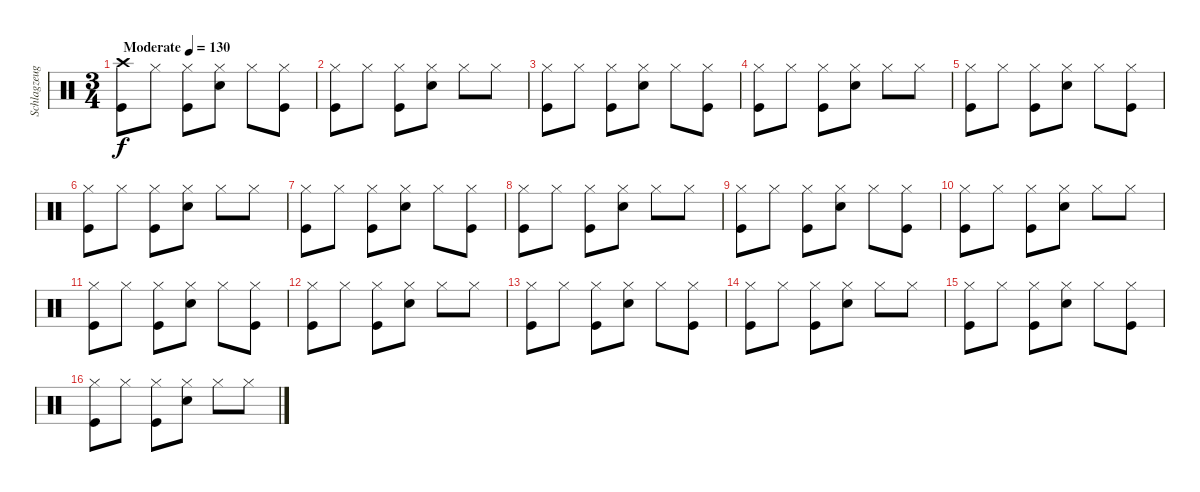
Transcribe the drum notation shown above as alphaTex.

\track ("Schlagzeug" "Schlagzeug") {instrument percussion}
\staff {score}
\articulation defaults
\ts (3 4)
\tempo (130 "Moderate")
\clef neutral
\ks c
("Crash high (hit)" "Kick (hit)").8{dy f} "Hi-Hat (closed)".8 ("Hi-Hat (closed)" "Kick (hit)").8 ("Hi-Hat (closed)" "Snare (hit) 2").8 "Hi-Hat (closed)".8 ("Hi-Hat (closed)" "Kick (hit)").8 |
("Hi-Hat (closed)" "Kick (hit)").8 "Hi-Hat (closed)".8 ("Hi-Hat (closed)" "Kick (hit)").8 ("Hi-Hat (closed)" "Snare (hit) 2").8 "Hi-Hat (closed)".8 "Hi-Hat (closed)".8 |
("Hi-Hat (closed)" "Kick (hit)").8 "Hi-Hat (closed)".8 ("Hi-Hat (closed)" "Kick (hit)").8 ("Hi-Hat (closed)" "Snare (hit) 2").8 "Hi-Hat (closed)".8 ("Hi-Hat (closed)" "Kick (hit)").8 |
("Hi-Hat (closed)" "Kick (hit)").8 "Hi-Hat (closed)".8 ("Hi-Hat (closed)" "Kick (hit)").8 ("Hi-Hat (closed)" "Snare (hit) 2").8 "Hi-Hat (closed)".8 "Hi-Hat (closed)".8 |
("Hi-Hat (closed)" "Kick (hit)").8 "Hi-Hat (closed)".8 ("Hi-Hat (closed)" "Kick (hit)").8 ("Hi-Hat (closed)" "Snare (hit) 2").8 "Hi-Hat (closed)".8 ("Hi-Hat (closed)" "Kick (hit)").8 |
("Hi-Hat (closed)" "Kick (hit)").8 "Hi-Hat (closed)".8 ("Hi-Hat (closed)" "Kick (hit)").8 ("Hi-Hat (closed)" "Snare (hit) 2").8 "Hi-Hat (closed)".8 "Hi-Hat (closed)".8 |
("Hi-Hat (closed)" "Kick (hit)").8 "Hi-Hat (closed)".8 ("Hi-Hat (closed)" "Kick (hit)").8 ("Hi-Hat (closed)" "Snare (hit) 2").8 "Hi-Hat (closed)".8 ("Hi-Hat (closed)" "Kick (hit)").8 |
("Hi-Hat (closed)" "Kick (hit)").8 "Hi-Hat (closed)".8 ("Hi-Hat (closed)" "Kick (hit)").8 ("Hi-Hat (closed)" "Snare (hit) 2").8 "Hi-Hat (closed)".8 "Hi-Hat (closed)".8 |
("Hi-Hat (closed)" "Kick (hit)").8 "Hi-Hat (closed)".8 ("Hi-Hat (closed)" "Kick (hit)").8 ("Hi-Hat (closed)" "Snare (hit) 2").8 "Hi-Hat (closed)".8 ("Hi-Hat (closed)" "Kick (hit)").8 |
("Hi-Hat (closed)" "Kick (hit)").8 "Hi-Hat (closed)".8 ("Hi-Hat (closed)" "Kick (hit)").8 ("Hi-Hat (closed)" "Snare (hit) 2").8 "Hi-Hat (closed)".8 "Hi-Hat (closed)".8 |
("Hi-Hat (closed)" "Kick (hit)").8 "Hi-Hat (closed)".8 ("Hi-Hat (closed)" "Kick (hit)").8 ("Hi-Hat (closed)" "Snare (hit) 2").8 "Hi-Hat (closed)".8 ("Hi-Hat (closed)" "Kick (hit)").8 |
("Hi-Hat (closed)" "Kick (hit)").8 "Hi-Hat (closed)".8 ("Hi-Hat (closed)" "Kick (hit)").8 ("Hi-Hat (closed)" "Snare (hit) 2").8 "Hi-Hat (closed)".8 "Hi-Hat (closed)".8 |
("Hi-Hat (closed)" "Kick (hit)").8 "Hi-Hat (closed)".8 ("Hi-Hat (closed)" "Kick (hit)").8 ("Hi-Hat (closed)" "Snare (hit) 2").8 "Hi-Hat (closed)".8 ("Hi-Hat (closed)" "Kick (hit)").8 |
("Hi-Hat (closed)" "Kick (hit)").8 "Hi-Hat (closed)".8 ("Hi-Hat (closed)" "Kick (hit)").8 ("Hi-Hat (closed)" "Snare (hit) 2").8 "Hi-Hat (closed)".8 "Hi-Hat (closed)".8 |
("Hi-Hat (closed)" "Kick (hit)").8 "Hi-Hat (closed)".8 ("Hi-Hat (closed)" "Kick (hit)").8 ("Hi-Hat (closed)" "Snare (hit) 2").8 "Hi-Hat (closed)".8 ("Hi-Hat (closed)" "Kick (hit)").8 |
("Hi-Hat (closed)" "Kick (hit)").8 "Hi-Hat (closed)".8 ("Hi-Hat (closed)" "Kick (hit)").8 ("Hi-Hat (closed)" "Snare (hit) 2").8 "Hi-Hat (closed)".8 "Hi-Hat (closed)".8
